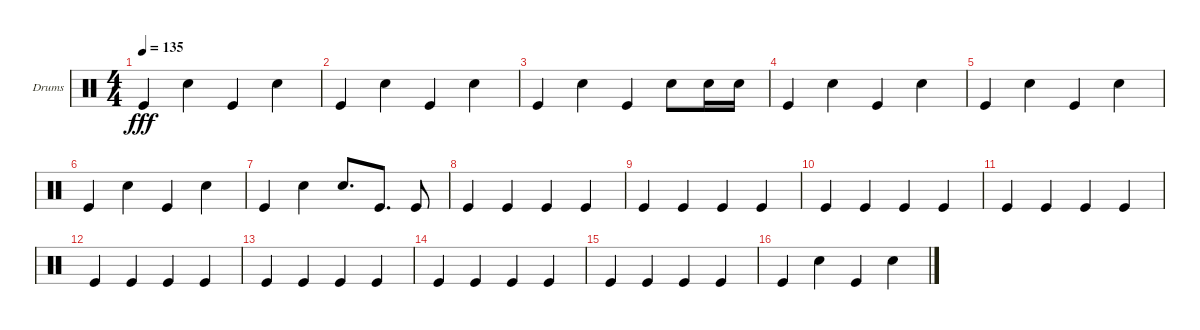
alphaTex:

\defaultSystemsLayout 4
\bracketExtendMode groupsimilarinstruments
\firstSystemTrackNameOrientation horizontal
\otherSystemsTrackNameOrientation horizontal
\track ("Helders" "Drums") {instrument percussion}
\staff {score}
\articulation defaults
\ts (4 4)
\tempo 135
\clef neutral
\ks c "Kick (hit)".4{dy fff} "Snare (hit) 2".4 "Kick (hit)".4 "Snare (hit) 2".4
|
"Kick (hit)".4 "Snare (hit) 2".4 "Kick (hit)".4 "Snare (hit) 2".4 |
"Kick (hit)".4 "Snare (hit) 2".4 "Kick (hit)".4 "Snare (hit) 2".8 "Snare (hit) 2".16 "Snare (hit) 2".16 |
"Kick (hit)".4 "Snare (hit) 2".4 "Kick (hit)".4 "Snare (hit) 2".4 |
"Kick (hit)".4 "Snare (hit) 2".4 "Kick (hit)".4 "Snare (hit) 2".4 |
"Kick (hit)".4 "Snare (hit) 2".4 "Kick (hit)".4 "Snare (hit) 2".4 |
"Kick (hit)".4 "Snare (hit) 2".4 "Snare (hit) 2".8{d} "Kick (hit)".8{d} "Kick (hit)".8 |
"Kick (hit)".4 "Kick (hit)".4 "Kick (hit)".4 "Kick (hit)".4 |
"Kick (hit)".4 "Kick (hit)".4 "Kick (hit)".4 "Kick (hit)".4 |
"Kick (hit)".4 "Kick (hit)".4 "Kick (hit)".4 "Kick (hit)".4 |
"Kick (hit)".4 "Kick (hit)".4 "Kick (hit)".4 "Kick (hit)".4 |
"Kick (hit)".4 "Kick (hit)".4 "Kick (hit)".4 "Kick (hit)".4 |
"Kick (hit)".4 "Kick (hit)".4 "Kick (hit)".4 "Kick (hit)".4 |
"Kick (hit)".4 "Kick (hit)".4 "Kick (hit)".4 "Kick (hit)".4 |
"Kick (hit)".4 "Kick (hit)".4 "Kick (hit)".4 "Kick (hit)".4 |
"Kick (hit)".4 "Snare (hit) 2".4 "Kick (hit)".4 "Snare (hit) 2".4
